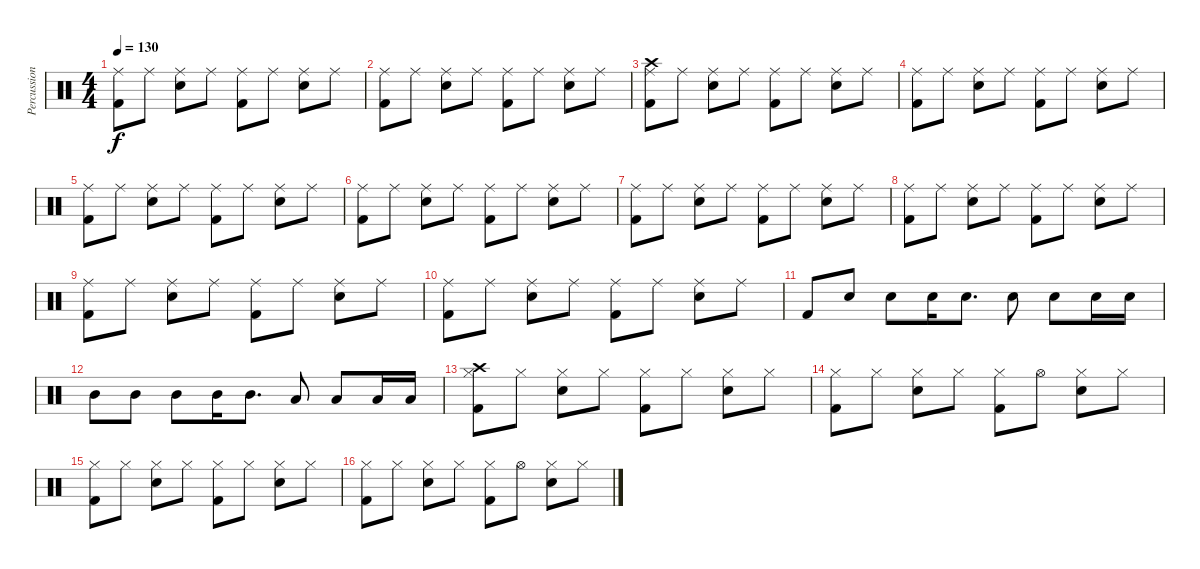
\track ("Percussion" "Percussion") {instrument percussion}
\staff {score}
\articulation defaults
\ts (4 4)
\tempo 130
\clef neutral
\ks c
("Ride (middle)" "Kick (hit) 2").8{dy f} "Ride (middle)".8 ("Ride (middle)" "Electric Snare (hit)").8 "Ride (middle)".8 ("Ride (middle)" "Kick (hit) 2").8 "Ride (middle)".8 ("Ride (middle)" "Electric Snare (hit)").8 "Ride (middle)".8 |
("Ride (middle)" "Kick (hit) 2").8 "Ride (middle)".8 ("Ride (middle)" "Electric Snare (hit)").8 "Ride (middle)".8 ("Ride (middle)" "Kick (hit) 2").8 "Ride (middle)".8 ("Ride (middle)" "Electric Snare (hit)").8 "Ride (middle)".8 |
("Crash high (hit)" "Ride (middle)" "Kick (hit) 2").8 "Ride (middle)".8 ("Ride (middle)" "Electric Snare (hit)").8 "Ride (middle)".8 ("Ride (middle)" "Kick (hit) 2").8 "Ride (middle)".8 ("Ride (middle)" "Electric Snare (hit)").8 "Ride (middle)".8 |
("Ride (middle)" "Kick (hit) 2").8 "Ride (middle)".8 ("Ride (middle)" "Electric Snare (hit)").8 "Ride (middle)".8 ("Ride (middle)" "Kick (hit) 2").8 "Ride (middle)".8 ("Ride (middle)" "Electric Snare (hit)").8 "Ride (middle)".8 |
("Ride (middle)" "Kick (hit) 2").8 "Ride (middle)".8 ("Ride (middle)" "Electric Snare (hit)").8 "Ride (middle)".8 ("Ride (middle)" "Kick (hit) 2").8 "Ride (middle)".8 ("Ride (middle)" "Electric Snare (hit)").8 "Ride (middle)".8 |
("Ride (middle)" "Kick (hit) 2").8 "Ride (middle)".8 ("Ride (middle)" "Electric Snare (hit)").8 "Ride (middle)".8 ("Ride (middle)" "Kick (hit) 2").8 "Ride (middle)".8 ("Ride (middle)" "Electric Snare (hit)").8 "Ride (middle)".8 |
("Ride (middle)" "Kick (hit) 2").8 "Ride (middle)".8 ("Ride (middle)" "Electric Snare (hit)").8 "Ride (middle)".8 ("Ride (middle)" "Kick (hit) 2").8 "Ride (middle)".8 ("Ride (middle)" "Electric Snare (hit)").8 "Ride (middle)".8 |
("Ride (middle)" "Kick (hit) 2").8 "Ride (middle)".8 ("Ride (middle)" "Electric Snare (hit)").8 "Ride (middle)".8 ("Ride (middle)" "Kick (hit) 2").8 "Ride (middle)".8 ("Ride (middle)" "Electric Snare (hit)").8 "Ride (middle)".8 |
("Ride (middle)" "Kick (hit) 2").8 "Ride (middle)".8 ("Ride (middle)" "Electric Snare (hit)").8 "Ride (middle)".8 ("Ride (middle)" "Kick (hit) 2").8 "Ride (middle)".8 ("Ride (middle)" "Electric Snare (hit)").8 "Ride (middle)".8 |
("Ride (middle)" "Kick (hit) 2").8 "Ride (middle)".8 ("Ride (middle)" "Electric Snare (hit)").8 "Ride (middle)".8 ("Ride (middle)" "Kick (hit) 2").8 "Ride (middle)".8 ("Ride (middle)" "Electric Snare (hit)").8 "Ride (middle)".8 |
"Kick (hit) 2".8 "Electric Snare (hit)".8 "Electric Snare (hit)".8 "Electric Snare (hit)".16 "Electric Snare (hit)".8{d} "Electric Snare (hit)".8 "Electric Snare (hit)".8 "Electric Snare (hit)".16 "Electric Snare (hit)".16 |
"Mid Tom (hit)".8 "Mid Tom (hit)".8 "Mid Tom (hit)".8 "Mid Tom (hit)".16 "Mid Tom (hit)".8{d} "Low Tom (hit)".8 "Low Tom (hit)".8 "Low Tom (hit)".16 "Low Tom (hit)".16 |
("Crash high (hit)" "Hi-Hat (closed)" "Kick (hit) 2").8 "Hi-Hat (closed)".8 ("Hi-Hat (closed)" "Electric Snare (hit)").8 "Hi-Hat (closed)".8 ("Hi-Hat (closed)" "Kick (hit) 2").8 "Hi-Hat (closed)".8 ("Hi-Hat (closed)" "Electric Snare (hit)").8 "Hi-Hat (closed)".8 |
("Hi-Hat (closed)" "Kick (hit) 2").8 "Hi-Hat (closed)".8 ("Hi-Hat (closed)" "Electric Snare (hit)").8 "Hi-Hat (closed)".8 ("Hi-Hat (closed)" "Kick (hit) 2").8 "Hi-Hat (open)".8 ("Hi-Hat (closed)" "Electric Snare (hit)").8 "Hi-Hat (closed)".8 |
("Hi-Hat (closed)" "Kick (hit) 2").8 "Hi-Hat (closed)".8 ("Hi-Hat (closed)" "Electric Snare (hit)").8 "Hi-Hat (closed)".8 ("Hi-Hat (closed)" "Kick (hit) 2").8 "Hi-Hat (closed)".8 ("Hi-Hat (closed)" "Electric Snare (hit)").8 "Hi-Hat (closed)".8 |
("Hi-Hat (closed)" "Kick (hit) 2").8 "Hi-Hat (closed)".8 ("Hi-Hat (closed)" "Electric Snare (hit)").8 "Hi-Hat (closed)".8 ("Hi-Hat (closed)" "Kick (hit) 2").8 "Hi-Hat (open)".8 ("Hi-Hat (closed)" "Electric Snare (hit)").8 "Hi-Hat (closed)".8
